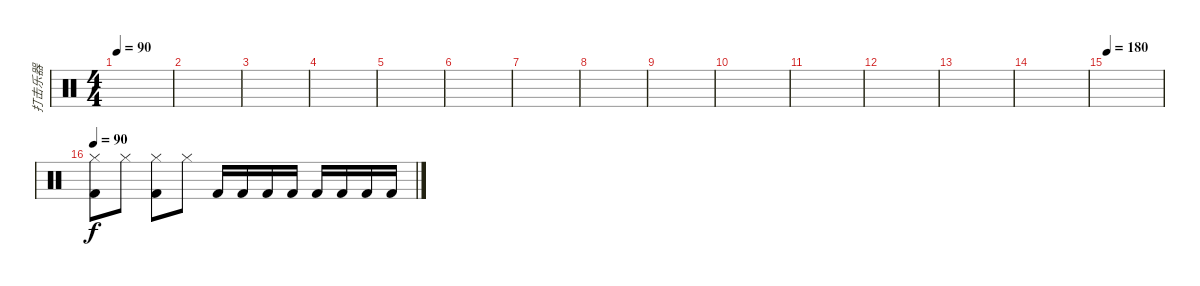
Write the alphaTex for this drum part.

\track ("打击乐器" "打击乐器") {instrument percussion}
\staff {score}
\articulation defaults
\ts (4 4)
\tempo 90
\clef neutral
\ks c
|
|
|
|
|
|
|
|
|
|
|
|
|
|
\tempo 180
|
\tempo 90
("Hi-Hat (closed)" "Kick (hit) 2").8 "Hi-Hat (closed)".8{dy f} ("Hi-Hat (closed)" "Kick (hit) 2").8 "Hi-Hat (closed)".8 "Kick (hit) 2".16 "Kick (hit) 2".16 "Kick (hit) 2".16 "Kick (hit) 2".16 "Kick (hit) 2".16 "Kick (hit) 2".16 "Kick (hit) 2".16 "Kick (hit) 2".16
